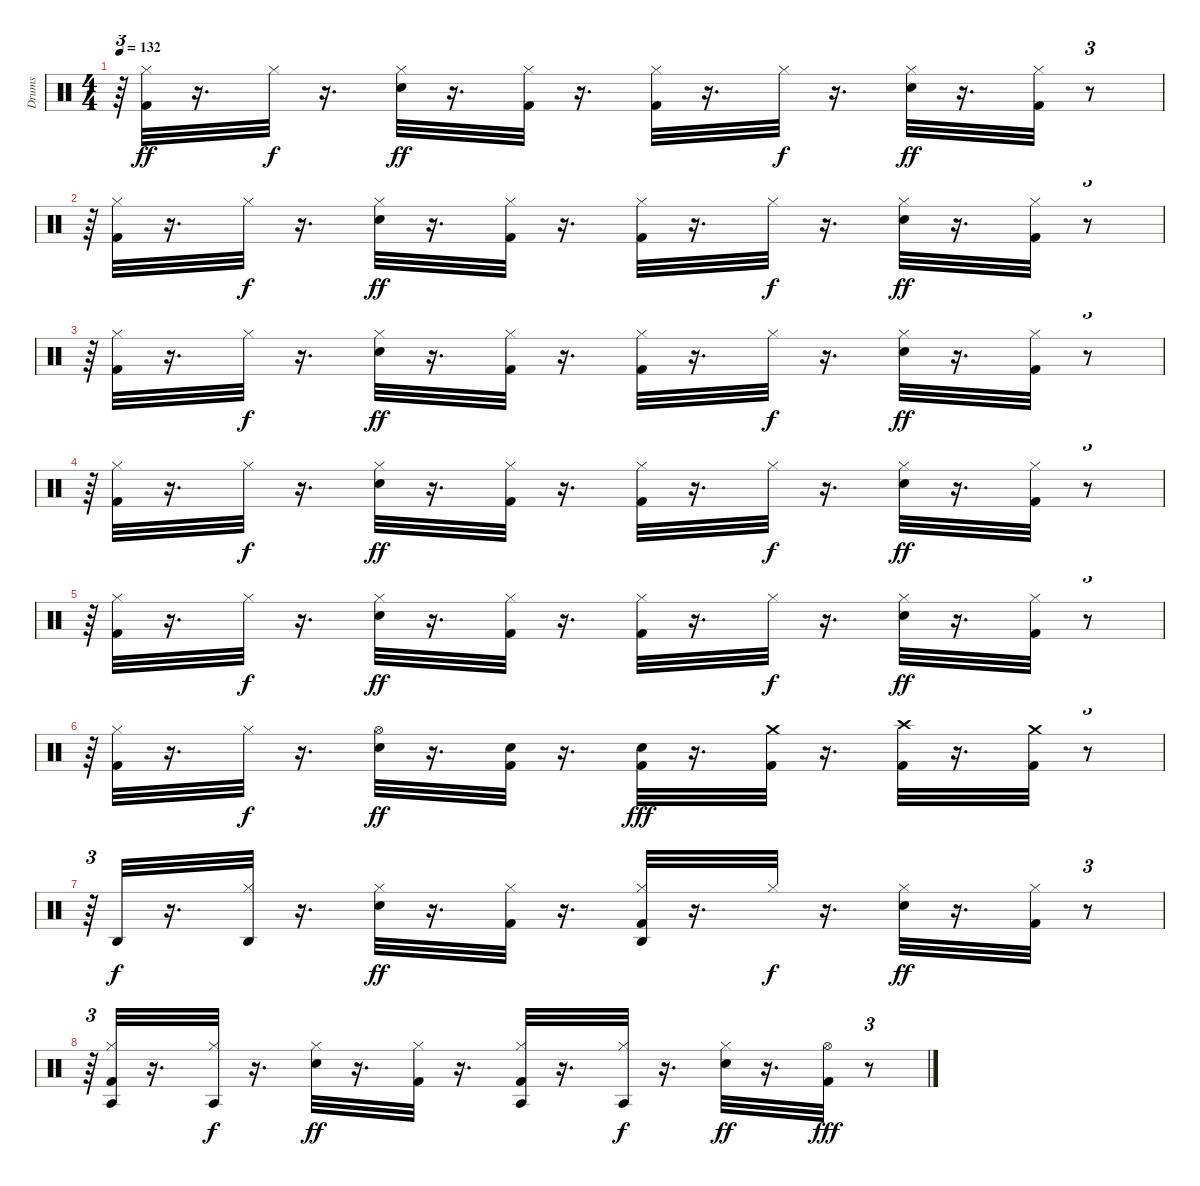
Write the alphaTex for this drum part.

\track ("Drums" "Drums") {instrument percussion}
\staff {score}
\articulation defaults
\ts (4 4)
\tempo 132
\clef neutral
\ks c
r.64{tu (3 2) dy ff} ("Kick (hit) 2" "Hi-Hat (closed)").32 r.16{d} "Hi-Hat (closed)".32{dy f} r.16{d} ("Snare (hit) 2" "Hi-Hat (closed)").32{dy ff} r.16{d} ("Kick (hit) 2" "Hi-Hat (closed)").32 r.16{d} ("Kick (hit) 2" "Hi-Hat (closed)").32 r.16{d} "Hi-Hat (closed)".32{dy f} r.16{d} ("Snare (hit) 2" "Hi-Hat (closed)").32{dy ff} r.16{d} ("Kick (hit) 2" "Hi-Hat (closed)").32 r.8{tu (3 2)} |
r.64{tu (3 2)} ("Kick (hit) 2" "Hi-Hat (closed)").32 r.16{d} "Hi-Hat (closed)".32{dy f} r.16{d} ("Snare (hit) 2" "Hi-Hat (closed)").32{dy ff} r.16{d} ("Kick (hit) 2" "Hi-Hat (closed)").32 r.16{d} ("Kick (hit) 2" "Hi-Hat (closed)").32 r.16{d} "Hi-Hat (closed)".32{dy f} r.16{d} ("Snare (hit) 2" "Hi-Hat (closed)").32{dy ff} r.16{d} ("Kick (hit) 2" "Hi-Hat (closed)").32 r.8{tu (3 2)} |
r.64{tu (3 2)} ("Kick (hit) 2" "Hi-Hat (closed)").32 r.16{d} "Hi-Hat (closed)".32{dy f} r.16{d} ("Snare (hit) 2" "Hi-Hat (closed)").32{dy ff} r.16{d} ("Kick (hit) 2" "Hi-Hat (closed)").32 r.16{d} ("Kick (hit) 2" "Hi-Hat (closed)").32 r.16{d} "Hi-Hat (closed)".32{dy f} r.16{d} ("Snare (hit) 2" "Hi-Hat (closed)").32{dy ff} r.16{d} ("Kick (hit) 2" "Hi-Hat (closed)").32 r.8{tu (3 2)} |
r.64{tu (3 2)} ("Kick (hit) 2" "Hi-Hat (closed)").32 r.16{d} "Hi-Hat (closed)".32{dy f} r.16{d} ("Snare (hit) 2" "Hi-Hat (closed)").32{dy ff} r.16{d} ("Kick (hit) 2" "Hi-Hat (closed)").32 r.16{d} ("Kick (hit) 2" "Hi-Hat (closed)").32 r.16{d} "Hi-Hat (closed)".32{dy f} r.16{d} ("Snare (hit) 2" "Hi-Hat (closed)").32{dy ff} r.16{d} ("Kick (hit) 2" "Hi-Hat (closed)").32 r.8{tu (3 2)} |
r.64{tu (3 2)} ("Kick (hit) 2" "Hi-Hat (closed)").32 r.16{d} "Hi-Hat (closed)".32{dy f} r.16{d} ("Snare (hit) 2" "Hi-Hat (closed)").32{dy ff} r.16{d} ("Kick (hit) 2" "Hi-Hat (closed)").32 r.16{d} ("Kick (hit) 2" "Hi-Hat (closed)").32 r.16{d} "Hi-Hat (closed)".32{dy f} r.16{d} ("Snare (hit) 2" "Hi-Hat (closed)").32{dy ff} r.16{d} ("Kick (hit) 2" "Hi-Hat (closed)").32 r.8{tu (3 2)} |
r.64{tu (3 2)} ("Kick (hit) 2" "Hi-Hat (closed)").32 r.16{d} "Hi-Hat (closed)".32{dy f} r.16{d} ("Snare (hit) 2" "Hi-Hat (open)").32{dy ff} r.16{d} ("Kick (hit) 2" "Snare (hit) 2").32 r.16{d} ("Kick (hit) 2" "Snare (hit) 2").32{dy fff} r.16{d} ("Kick (hit) 2" "Crash medium (hit)").32 r.16{d} ("Kick (hit) 2" "Crash high (hit)").32 r.16{d} ("Kick (hit) 2" "Crash medium (hit)").32 r.8{tu (3 2)} |
r.64{tu (3 2)} "Agogo high (hit)".32{dy f} r.16{d} ("Hi-Hat (closed)" "Agogo high (hit)").32 r.16{d} ("Snare (hit) 2" "Hi-Hat (closed)").32{dy ff} r.16{d} ("Kick (hit) 2" "Hi-Hat (closed)").32 r.16{d} ("Kick (hit) 2" "Hi-Hat (closed)" "Agogo high (hit)").32 r.16{d} "Hi-Hat (closed)".32{dy f} r.16{d} ("Snare (hit) 2" "Hi-Hat (closed)").32{dy ff} r.16{d} ("Kick (hit) 2" "Hi-Hat (closed)").32 r.8{tu (3 2)} |
r.64{tu (3 2)} ("Kick (hit) 2" "Hi-Hat (closed)" "Agogo tow (hit)").32 r.16{d} ("Hi-Hat (closed)" "Agogo tow (hit)").32{dy f} r.16{d} ("Snare (hit) 2" "Hi-Hat (closed)").32{dy ff} r.16{d} ("Kick (hit) 2" "Hi-Hat (closed)").32 r.16{d} ("Kick (hit) 2" "Hi-Hat (closed)" "Agogo tow (hit)").32 r.16{d} ("Hi-Hat (closed)" "Agogo tow (hit)").32{dy f} r.16{d} ("Snare (hit) 2" "Hi-Hat (closed)").32{dy ff} r.16{d} ("Kick (hit) 2" "Hi-Hat (open)").32{dy fff} r.8{tu (3 2)}
